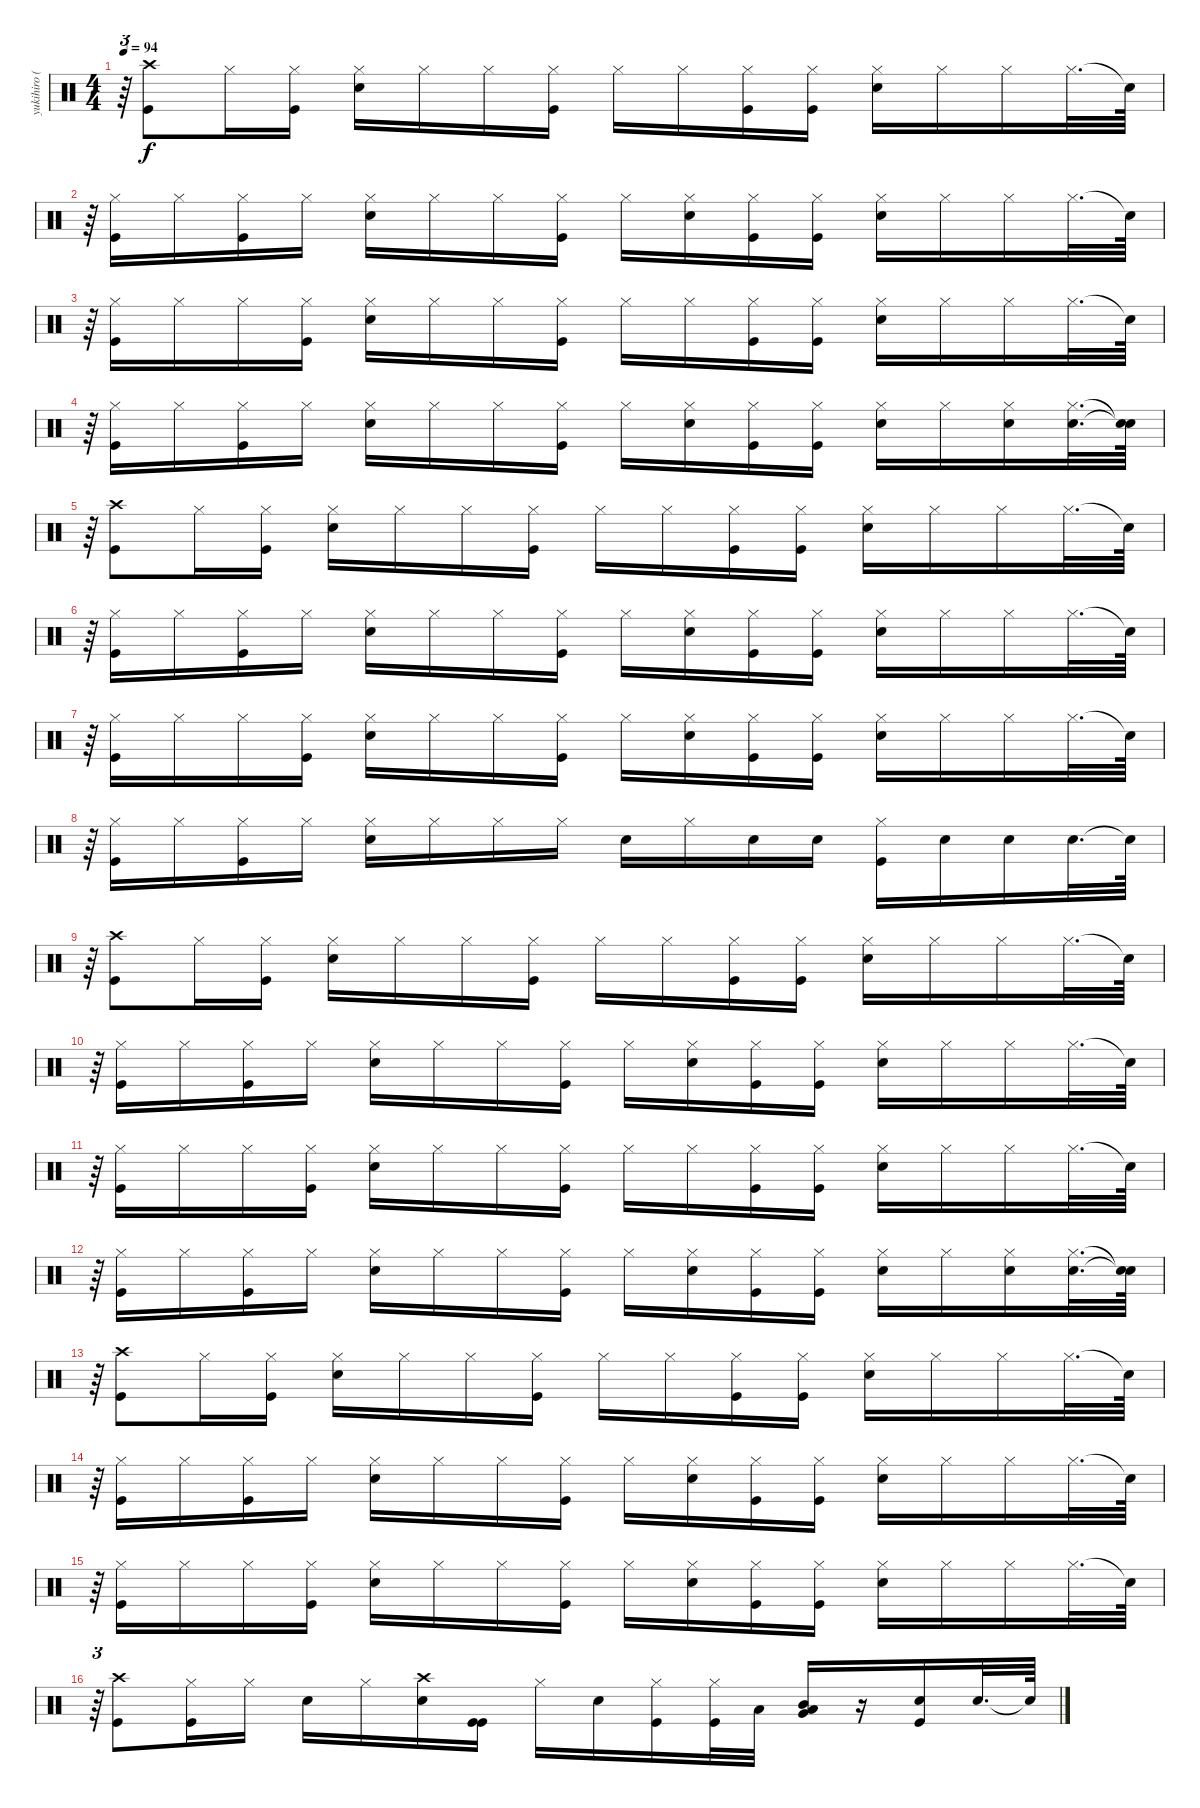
\track ("yukihiro (Drums)" "yukihiro (") {instrument percussion}
\staff {score}
\articulation defaults
\ts (4 4)
\tempo 94
\clef neutral
\ks c
r.64{tu (3 2) dy f} ("Kick (hit)" "Crash high (hit)").8 "Hi-Hat (closed)".16 ("Kick (hit)" "Hi-Hat (closed)").16 ("Electric Snare (hit)" "Hi-Hat (closed)").16 "Hi-Hat (closed)".16 "Hi-Hat (closed)".16 ("Kick (hit)" "Hi-Hat (closed)").16 "Hi-Hat (closed)".16 "Hi-Hat (closed)".16 ("Kick (hit)" "Hi-Hat (closed)").16 ("Kick (hit)" "Hi-Hat (closed)").16 ("Electric Snare (hit)" "Hi-Hat (closed)").16 "Hi-Hat (closed)".16 "Hi-Hat (closed)".16 "Hi-Hat (closed)".32{d} "Snare (hit)"{t}.64 |
r.64{tu (3 2)} ("Kick (hit)" "Hi-Hat (closed)").16 "Hi-Hat (closed)".16 ("Kick (hit)" "Hi-Hat (closed)").16 "Hi-Hat (closed)".16 ("Electric Snare (hit)" "Hi-Hat (closed)").16 "Hi-Hat (closed)".16 "Hi-Hat (closed)".16 ("Kick (hit)" "Hi-Hat (closed)").16 "Hi-Hat (closed)".16 ("Electric Snare (hit)" "Hi-Hat (closed)").16 ("Kick (hit)" "Hi-Hat (closed)").16 ("Kick (hit)" "Hi-Hat (closed)").16 ("Electric Snare (hit)" "Hi-Hat (closed)").16 "Hi-Hat (closed)".16 "Hi-Hat (closed)".16 "Hi-Hat (closed)".32{d} "Snare (hit)"{t}.64 |
r.64{tu (3 2)} ("Kick (hit)" "Hi-Hat (closed)").16 "Hi-Hat (closed)".16 "Hi-Hat (closed)".16 ("Kick (hit)" "Hi-Hat (closed)").16 ("Electric Snare (hit)" "Hi-Hat (closed)").16 "Hi-Hat (closed)".16 "Hi-Hat (closed)".16 ("Kick (hit)" "Hi-Hat (closed)").16 "Hi-Hat (closed)".16 "Hi-Hat (closed)".16 ("Kick (hit)" "Hi-Hat (closed)").16 ("Kick (hit)" "Hi-Hat (closed)").16 ("Electric Snare (hit)" "Hi-Hat (closed)").16 "Hi-Hat (closed)".16 "Hi-Hat (closed)".16 "Hi-Hat (closed)".32{d} "Snare (hit)"{t}.64 |
r.64{tu (3 2)} ("Kick (hit)" "Hi-Hat (closed)").16 "Hi-Hat (closed)".16 ("Kick (hit)" "Hi-Hat (closed)").16 "Hi-Hat (closed)".16 ("Electric Snare (hit)" "Hi-Hat (closed)").16 "Hi-Hat (closed)".16 "Hi-Hat (closed)".16 ("Kick (hit)" "Hi-Hat (closed)").16 "Hi-Hat (closed)".16 ("Electric Snare (hit)" "Hi-Hat (closed)").16 ("Kick (hit)" "Hi-Hat (closed)").16 ("Kick (hit)" "Hi-Hat (closed)").16 ("Electric Snare (hit)" "Hi-Hat (closed)").16 "Hi-Hat (closed)".16 ("Electric Snare (hit)" "Hi-Hat (closed)").16 ("Electric Snare (hit)" "Hi-Hat (closed)").32{d} ("Snare (hit)"{t} "Snare (hit)"{t}).64 |
r.64{tu (3 2)} ("Crash high (hit)" "Kick (hit)").8 "Hi-Hat (closed)".16 ("Kick (hit)" "Hi-Hat (closed)").16 ("Electric Snare (hit)" "Hi-Hat (closed)").16 "Hi-Hat (closed)".16 "Hi-Hat (closed)".16 ("Kick (hit)" "Hi-Hat (closed)").16 "Hi-Hat (closed)".16 "Hi-Hat (closed)".16 ("Kick (hit)" "Hi-Hat (closed)").16 ("Kick (hit)" "Hi-Hat (closed)").16 ("Electric Snare (hit)" "Hi-Hat (closed)").16 "Hi-Hat (closed)".16 "Hi-Hat (closed)".16 "Hi-Hat (closed)".32{d} "Snare (hit)"{t}.64 |
r.64{tu (3 2)} ("Kick (hit)" "Hi-Hat (closed)").16 "Hi-Hat (closed)".16 ("Kick (hit)" "Hi-Hat (closed)").16 "Hi-Hat (closed)".16 ("Electric Snare (hit)" "Hi-Hat (closed)").16 "Hi-Hat (closed)".16 "Hi-Hat (closed)".16 ("Kick (hit)" "Hi-Hat (closed)").16 "Hi-Hat (closed)".16 ("Electric Snare (hit)" "Hi-Hat (closed)").16 ("Kick (hit)" "Hi-Hat (closed)").16 ("Kick (hit)" "Hi-Hat (closed)").16 ("Electric Snare (hit)" "Hi-Hat (closed)").16 "Hi-Hat (closed)".16 "Hi-Hat (closed)".16 "Hi-Hat (closed)".32{d} "Snare (hit)"{t}.64 |
r.64{tu (3 2)} ("Kick (hit)" "Hi-Hat (closed)").16 "Hi-Hat (closed)".16 "Hi-Hat (closed)".16 ("Kick (hit)" "Hi-Hat (closed)").16 ("Electric Snare (hit)" "Hi-Hat (closed)").16 "Hi-Hat (closed)".16 "Hi-Hat (closed)".16 ("Kick (hit)" "Hi-Hat (closed)").16 "Hi-Hat (closed)".16 ("Electric Snare (hit)" "Hi-Hat (closed)").16 ("Kick (hit)" "Hi-Hat (closed)").16 ("Kick (hit)" "Hi-Hat (closed)").16 ("Electric Snare (hit)" "Hi-Hat (closed)").16 "Hi-Hat (closed)".16 "Hi-Hat (closed)".16 "Hi-Hat (closed)".32{d} "Snare (hit)"{t}.64 |
r.64{tu (3 2)} ("Kick (hit)" "Hi-Hat (closed)").16 "Hi-Hat (closed)".16 ("Kick (hit)" "Hi-Hat (closed)").16 "Hi-Hat (closed)".16 ("Electric Snare (hit)" "Hi-Hat (closed)").16 "Hi-Hat (closed)".16 "Hi-Hat (closed)".16 "Hi-Hat (closed)".16 "Electric Snare (hit)".16 "Hi-Hat (closed)".16 "Electric Snare (hit)".16 "Electric Snare (hit)".16 ("Kick (hit)" "Hi-Hat (closed)").16 "Electric Snare (hit)".16 "Electric Snare (hit)".16 "Electric Snare (hit)".32{d} "Snare (hit)"{t}.64 |
r.64{tu (3 2)} ("Kick (hit)" "Crash high (hit)").8 "Hi-Hat (closed)".16 ("Kick (hit)" "Hi-Hat (closed)").16 ("Electric Snare (hit)" "Hi-Hat (closed)").16 "Hi-Hat (closed)".16 "Hi-Hat (closed)".16 ("Kick (hit)" "Hi-Hat (closed)").16 "Hi-Hat (closed)".16 "Hi-Hat (closed)".16 ("Kick (hit)" "Hi-Hat (closed)").16 ("Kick (hit)" "Hi-Hat (closed)").16 ("Electric Snare (hit)" "Hi-Hat (closed)").16 "Hi-Hat (closed)".16 "Hi-Hat (closed)".16 "Hi-Hat (closed)".32{d} "Snare (hit)"{t}.64 |
r.64{tu (3 2)} ("Kick (hit)" "Hi-Hat (closed)").16 "Hi-Hat (closed)".16 ("Kick (hit)" "Hi-Hat (closed)").16 "Hi-Hat (closed)".16 ("Electric Snare (hit)" "Hi-Hat (closed)").16 "Hi-Hat (closed)".16 "Hi-Hat (closed)".16 ("Kick (hit)" "Hi-Hat (closed)").16 "Hi-Hat (closed)".16 ("Electric Snare (hit)" "Hi-Hat (closed)").16 ("Kick (hit)" "Hi-Hat (closed)").16 ("Kick (hit)" "Hi-Hat (closed)").16 ("Electric Snare (hit)" "Hi-Hat (closed)").16 "Hi-Hat (closed)".16 "Hi-Hat (closed)".16 "Hi-Hat (closed)".32{d} "Snare (hit)"{t}.64 |
r.64{tu (3 2)} ("Kick (hit)" "Hi-Hat (closed)").16 "Hi-Hat (closed)".16 "Hi-Hat (closed)".16 ("Kick (hit)" "Hi-Hat (closed)").16 ("Electric Snare (hit)" "Hi-Hat (closed)").16 "Hi-Hat (closed)".16 "Hi-Hat (closed)".16 ("Kick (hit)" "Hi-Hat (closed)").16 "Hi-Hat (closed)".16 "Hi-Hat (closed)".16 ("Kick (hit)" "Hi-Hat (closed)").16 ("Kick (hit)" "Hi-Hat (closed)").16 ("Electric Snare (hit)" "Hi-Hat (closed)").16 "Hi-Hat (closed)".16 "Hi-Hat (closed)".16 "Hi-Hat (closed)".32{d} "Snare (hit)"{t}.64 |
r.64{tu (3 2)} ("Kick (hit)" "Hi-Hat (closed)").16 "Hi-Hat (closed)".16 ("Kick (hit)" "Hi-Hat (closed)").16 "Hi-Hat (closed)".16 ("Electric Snare (hit)" "Hi-Hat (closed)").16 "Hi-Hat (closed)".16 "Hi-Hat (closed)".16 ("Kick (hit)" "Hi-Hat (closed)").16 "Hi-Hat (closed)".16 ("Electric Snare (hit)" "Hi-Hat (closed)").16 ("Kick (hit)" "Hi-Hat (closed)").16 ("Kick (hit)" "Hi-Hat (closed)").16 ("Electric Snare (hit)" "Hi-Hat (closed)").16 "Hi-Hat (closed)".16 ("Electric Snare (hit)" "Hi-Hat (closed)").16 ("Electric Snare (hit)" "Hi-Hat (closed)").32{d} ("Snare (hit)"{t} "Snare (hit)"{t}).64 |
r.64{tu (3 2)} ("Crash high (hit)" "Kick (hit)").8 "Hi-Hat (closed)".16 ("Kick (hit)" "Hi-Hat (closed)").16 ("Electric Snare (hit)" "Hi-Hat (closed)").16 "Hi-Hat (closed)".16 "Hi-Hat (closed)".16 ("Kick (hit)" "Hi-Hat (closed)").16 "Hi-Hat (closed)".16 "Hi-Hat (closed)".16 ("Kick (hit)" "Hi-Hat (closed)").16 ("Kick (hit)" "Hi-Hat (closed)").16 ("Electric Snare (hit)" "Hi-Hat (closed)").16 "Hi-Hat (closed)".16 "Hi-Hat (closed)".16 "Hi-Hat (closed)".32{d} "Snare (hit)"{t}.64 |
r.64{tu (3 2)} ("Kick (hit)" "Hi-Hat (closed)").16 "Hi-Hat (closed)".16 ("Kick (hit)" "Hi-Hat (closed)").16 "Hi-Hat (closed)".16 ("Electric Snare (hit)" "Hi-Hat (closed)").16 "Hi-Hat (closed)".16 "Hi-Hat (closed)".16 ("Kick (hit)" "Hi-Hat (closed)").16 "Hi-Hat (closed)".16 ("Electric Snare (hit)" "Hi-Hat (closed)").16 ("Kick (hit)" "Hi-Hat (closed)").16 ("Kick (hit)" "Hi-Hat (closed)").16 ("Electric Snare (hit)" "Hi-Hat (closed)").16 "Hi-Hat (closed)".16 "Hi-Hat (closed)".16 "Hi-Hat (closed)".32{d} "Snare (hit)"{t}.64 |
r.64{tu (3 2)} ("Kick (hit)" "Hi-Hat (closed)").16 "Hi-Hat (closed)".16 "Hi-Hat (closed)".16 ("Kick (hit)" "Hi-Hat (closed)").16 ("Electric Snare (hit)" "Hi-Hat (closed)").16 "Hi-Hat (closed)".16 "Hi-Hat (closed)".16 ("Kick (hit)" "Hi-Hat (closed)").16 "Hi-Hat (closed)".16 ("Electric Snare (hit)" "Hi-Hat (closed)").16 ("Kick (hit)" "Hi-Hat (closed)").16 ("Kick (hit)" "Hi-Hat (closed)").16 ("Electric Snare (hit)" "Hi-Hat (closed)").16 "Hi-Hat (closed)".16 "Hi-Hat (closed)".16 "Hi-Hat (closed)".32{d} "Snare (hit)"{t}.64 |
r.64{tu (3 2)} ("Kick (hit)" "Crash high (hit)").8 ("Kick (hit)" "Hi-Hat (closed)").16 "Hi-Hat (closed)".16 "Electric Snare (hit)".16 "Hi-Hat (closed)".16 ("Electric Snare (hit)" "Crash high (hit)").16 ("Kick (hit)" "Kick (hit)").16 "Hi-Hat (closed)".16 "Electric Snare (hit)".16 ("Kick (hit)" "Hi-Hat (closed)").16 ("Kick (hit)" "Hi-Hat (closed)").32 "Low Tom (hit)".32 ("Mid Tom (hit)" "Very Low Tom (hit)" "Low Floor Tom (hit)").16 r.16 ("Kick (hit)" "Electric Snare (hit)").16 "Electric Snare (hit)".32{d} "Snare (hit)"{t}.64
